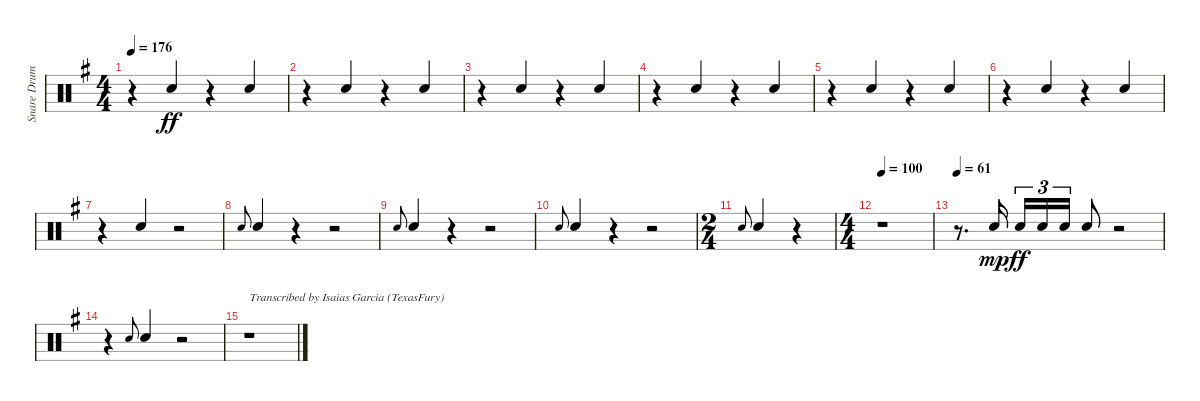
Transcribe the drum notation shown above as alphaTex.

\track ("Snare Drum" "Snare Drum") {instrument percussion}
\staff {score}
\articulation defaults
\ts (4 4)
\tempo 176
\clef neutral
\ks eminor
r.4{dy ff} "Electric Snare (hit)".4{beam Up} r.4 "Electric Snare (hit)".4{beam Up} |
r.4 "Electric Snare (hit)".4{beam Up} r.4 "Electric Snare (hit)".4{beam Up} |
r.4 "Electric Snare (hit)".4{beam Up} r.4 "Electric Snare (hit)".4{beam Up} |
r.4 "Electric Snare (hit)".4{beam Up} r.4 "Electric Snare (hit)".4{beam Up} |
r.4 "Electric Snare (hit)".4{beam Up} r.4 "Electric Snare (hit)".4{beam Up} |
r.4 "Electric Snare (hit)".4{beam Up} r.4 "Electric Snare (hit)".4{beam Up} |
r.4 "Electric Snare (hit)".4{beam Up} r.2 |
"Electric Snare (hit)".8{gr onbeat} "Electric Snare (hit)".4{beam Up} r.4 r.2 |
"Electric Snare (hit)".8{gr onbeat} "Electric Snare (hit)".4{beam Up} r.4 r.2 |
\ks g "Electric Snare (hit)".8{gr onbeat} "Electric Snare (hit)".4{beam Up}
r.4 r.2 |
\ts (2 4)
"Electric Snare (hit)".8{gr onbeat} "Electric Snare (hit)".4{beam Up} r.4 |
\ts (4 4)
\tempo 100
r.1 |
\tempo 61
r.8{d beam Up} "Snare (hit) 2".16{dy mp beam Up} "Electric Snare (hit)".16{tu (3 2) dy ff beam Up} "Electric Snare (hit)".16{tu (3 2) beam Up} "Electric Snare (hit)".16{tu (3 2) beam Up} "Electric Snare (hit)".8{beam Up} r.2 |
r.4 "Electric Snare (hit)".8{gr onbeat} "Electric Snare (hit)".4{beam Up} r.2 |
r.1{txt "Transcribed by Isaias Garcia (TexasFury)"}
